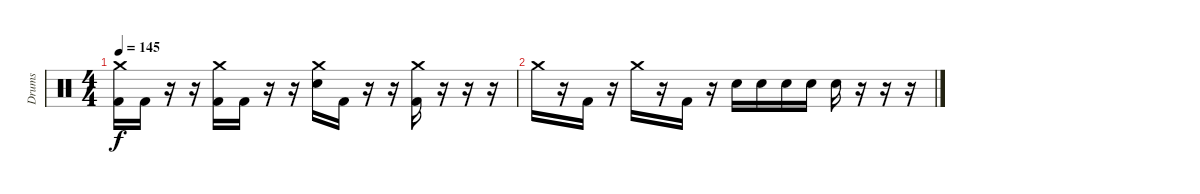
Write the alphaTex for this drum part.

\track ("Drums" "Drums") {instrument percussion}
\staff {score}
\articulation defaults
\ts (4 4)
\tempo 145
\clef neutral
\ks c
("Crash medium (hit)" "Kick (hit) 2").16{dy f} "Kick (hit) 2".16 r.16 r.16 ("Crash medium (hit)" "Kick (hit) 2").16 "Kick (hit) 2".16 r.16 r.16 ("Crash medium (hit)" "Electric Snare (hit)").16 "Kick (hit) 2".16 r.16 r.16 ("Crash medium (hit)" "Kick (hit) 2").16 r.16 r.16 r.16 |
"Crash medium (hit)".16 r.16 "Kick (hit) 2".16 r.16 "Crash medium (hit)".16 r.16 "Kick (hit) 2".16 r.16 "Electric Snare (hit)".16 "Electric Snare (hit)".16 "Electric Snare (hit)".16 "Electric Snare (hit)".16 "Electric Snare (hit)".16 r.16 r.16 r.16
